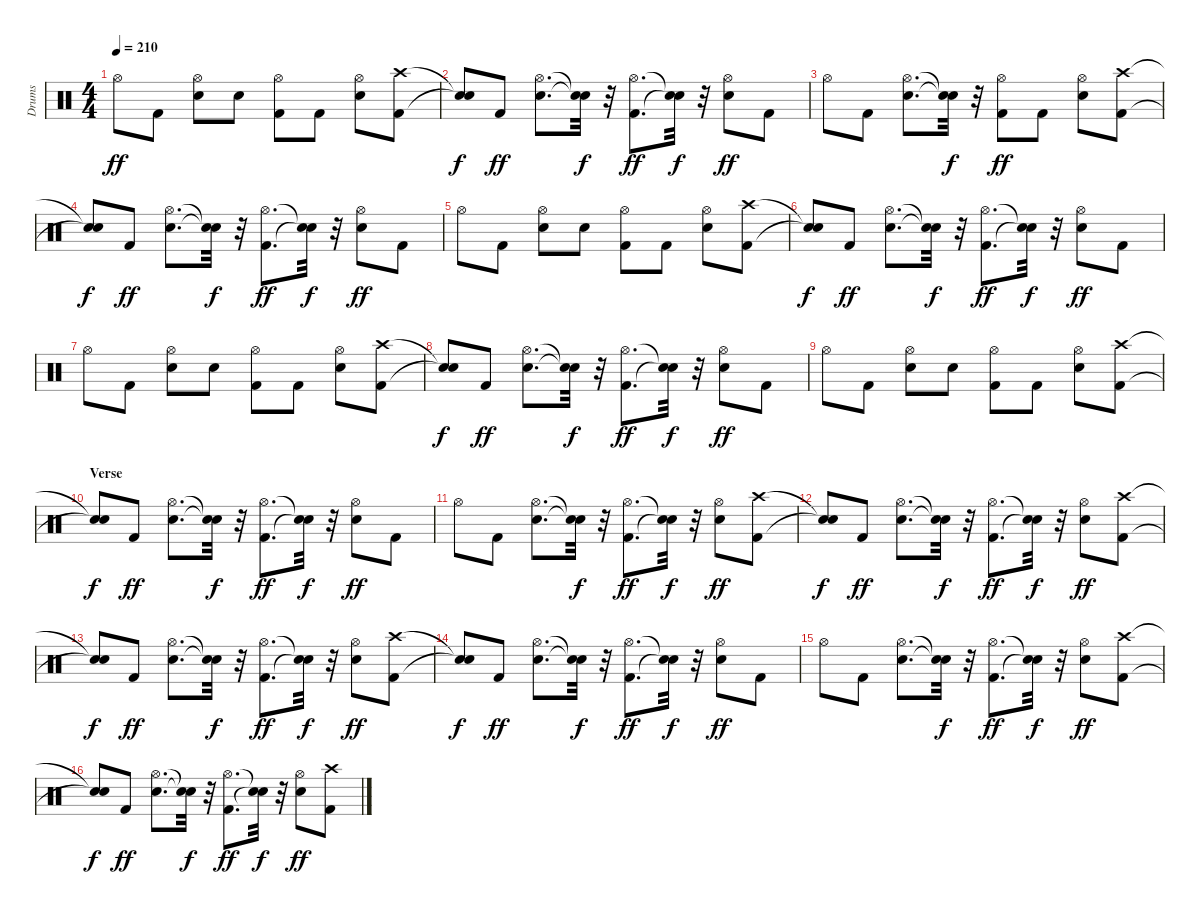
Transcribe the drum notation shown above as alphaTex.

\track ("Drums" "Drums") {instrument percussion}
\staff {score}
\articulation defaults
\ts (4 4)
\tempo 210
\clef neutral
\ks c "Hi-Hat (open)".8{dy ff} "Kick (hit) 2".8
("Snare (hit) 2" "Hi-Hat (open)").8 "Snare (hit) 2".8 ("Kick (hit) 2" "Hi-Hat (open)").8 "Kick (hit) 2".8 ("Snare (hit) 2" "Hi-Hat (open)").8 ("Kick (hit) 2" "Crash high (hit)").8 |
("Snare (hit)"{t} "Snare (hit)"{t}).8{dy f} "Kick (hit) 2".8{dy ff} ("Snare (hit) 2" "Hi-Hat (open)").8{d} ("Snare (hit)"{t} "Snare (hit)"{t}).32{dy f} r.32 ("Kick (hit) 2" "Hi-Hat (open)").8{d dy ff} ("Snare (hit)"{t} "Snare (hit)"{t}).32{dy f} r.32 ("Snare (hit) 2" "Hi-Hat (open)").8{dy ff} "Kick (hit) 2".8 |
"Hi-Hat (open)".8 "Kick (hit) 2".8 ("Snare (hit) 2" "Hi-Hat (open)").8{d} ("Snare (hit)"{t} "Snare (hit)"{t}).32{dy f} r.32 ("Kick (hit) 2" "Hi-Hat (open)").8{dy ff} "Kick (hit) 2".8 ("Snare (hit) 2" "Hi-Hat (open)").8 ("Kick (hit) 2" "Crash high (hit)").8 |
("Snare (hit)"{t} "Snare (hit)"{t}).8{dy f} "Kick (hit) 2".8{dy ff} ("Snare (hit) 2" "Hi-Hat (open)").8{d} ("Snare (hit)"{t} "Snare (hit)"{t}).32{dy f} r.32 ("Kick (hit) 2" "Hi-Hat (open)").8{d dy ff} ("Snare (hit)"{t} "Snare (hit)"{t}).32{dy f} r.32 ("Snare (hit) 2" "Hi-Hat (open)").8{dy ff} "Kick (hit) 2".8 |
"Hi-Hat (open)".8 "Kick (hit) 2".8 ("Snare (hit) 2" "Hi-Hat (open)").8 "Snare (hit) 2".8 ("Kick (hit) 2" "Hi-Hat (open)").8 "Kick (hit) 2".8 ("Snare (hit) 2" "Hi-Hat (open)").8 ("Kick (hit) 2" "Crash high (hit)").8 |
("Snare (hit)"{t} "Snare (hit)"{t}).8{dy f} "Kick (hit) 2".8{dy ff} ("Snare (hit) 2" "Hi-Hat (open)").8{d} ("Snare (hit)"{t} "Snare (hit)"{t}).32{dy f} r.32 ("Kick (hit) 2" "Hi-Hat (open)").8{d dy ff} ("Snare (hit)"{t} "Snare (hit)"{t}).32{dy f} r.32 ("Snare (hit) 2" "Hi-Hat (open)").8{dy ff} "Kick (hit) 2".8 |
"Hi-Hat (open)".8 "Kick (hit) 2".8 ("Snare (hit) 2" "Hi-Hat (open)").8 "Snare (hit) 2".8 ("Kick (hit) 2" "Hi-Hat (open)").8 "Kick (hit) 2".8 ("Snare (hit) 2" "Hi-Hat (open)").8 ("Kick (hit) 2" "Crash high (hit)").8 |
("Snare (hit)"{t} "Snare (hit)"{t}).8{dy f} "Kick (hit) 2".8{dy ff} ("Snare (hit) 2" "Hi-Hat (open)").8{d} ("Snare (hit)"{t} "Snare (hit)"{t}).32{dy f} r.32 ("Kick (hit) 2" "Hi-Hat (open)").8{d dy ff} ("Snare (hit)"{t} "Snare (hit)"{t}).32{dy f} r.32 ("Snare (hit) 2" "Hi-Hat (open)").8{dy ff} "Kick (hit) 2".8 |
"Hi-Hat (open)".8 "Kick (hit) 2".8 ("Snare (hit) 2" "Hi-Hat (open)").8 "Snare (hit) 2".8 ("Kick (hit) 2" "Hi-Hat (open)").8 "Kick (hit) 2".8 ("Snare (hit) 2" "Hi-Hat (open)").8 ("Kick (hit) 2" "Crash high (hit)").8 |
\section ("" "Verse")
("Snare (hit)"{t} "Snare (hit)"{t}).8{dy f} "Kick (hit) 2".8{dy ff} ("Snare (hit) 2" "Hi-Hat (open)").8{d} ("Snare (hit)"{t} "Snare (hit)"{t}).32{dy f} r.32 ("Kick (hit) 2" "Hi-Hat (open)").8{d dy ff} ("Snare (hit)"{t} "Snare (hit)"{t}).32{dy f} r.32 ("Snare (hit) 2" "Hi-Hat (open)").8{dy ff} "Kick (hit) 2".8 |
"Hi-Hat (open)".8 "Kick (hit) 2".8 ("Snare (hit) 2" "Hi-Hat (open)").8{d} ("Snare (hit)"{t} "Snare (hit)"{t}).32{dy f} r.32 ("Kick (hit) 2" "Hi-Hat (open)").8{d dy ff} ("Snare (hit)"{t} "Snare (hit)"{t}).32{dy f} r.32 ("Snare (hit) 2" "Hi-Hat (open)").8{dy ff} ("Kick (hit) 2" "Crash high (hit)").8 |
("Snare (hit)"{t} "Snare (hit)"{t}).8{dy f} "Kick (hit) 2".8{dy ff} ("Snare (hit) 2" "Hi-Hat (open)").8{d} ("Snare (hit)"{t} "Snare (hit)"{t}).32{dy f} r.32 ("Kick (hit) 2" "Hi-Hat (open)").8{d dy ff} ("Snare (hit)"{t} "Snare (hit)"{t}).32{dy f} r.32 ("Snare (hit) 2" "Hi-Hat (open)").8{dy ff} ("Kick (hit) 2" "Crash high (hit)").8 |
("Snare (hit)"{t} "Snare (hit)"{t}).8{dy f} "Kick (hit) 2".8{dy ff} ("Snare (hit) 2" "Hi-Hat (open)").8{d} ("Snare (hit)"{t} "Snare (hit)"{t}).32{dy f} r.32 ("Kick (hit) 2" "Hi-Hat (open)").8{d dy ff} ("Snare (hit)"{t} "Snare (hit)"{t}).32{dy f} r.32 ("Snare (hit) 2" "Hi-Hat (open)").8{dy ff} ("Kick (hit) 2" "Crash high (hit)").8 |
("Snare (hit)"{t} "Snare (hit)"{t}).8{dy f} "Kick (hit) 2".8{dy ff} ("Snare (hit) 2" "Hi-Hat (open)").8{d} ("Snare (hit)"{t} "Snare (hit)"{t}).32{dy f} r.32 ("Kick (hit) 2" "Hi-Hat (open)").8{d dy ff} ("Snare (hit)"{t} "Snare (hit)"{t}).32{dy f} r.32 ("Snare (hit) 2" "Hi-Hat (open)").8{dy ff} "Kick (hit) 2".8 |
"Hi-Hat (open)".8 "Kick (hit) 2".8 ("Snare (hit) 2" "Hi-Hat (open)").8{d} ("Snare (hit)"{t} "Snare (hit)"{t}).32{dy f} r.32 ("Kick (hit) 2" "Hi-Hat (open)").8{d dy ff} ("Snare (hit)"{t} "Snare (hit)"{t}).32{dy f} r.32 ("Snare (hit) 2" "Hi-Hat (open)").8{dy ff} ("Kick (hit) 2" "Crash high (hit)").8 |
("Snare (hit)"{t} "Snare (hit)"{t}).8{dy f} "Kick (hit) 2".8{dy ff} ("Snare (hit) 2" "Hi-Hat (open)").8{d} ("Snare (hit)"{t} "Snare (hit)"{t}).32{dy f} r.32 ("Kick (hit) 2" "Hi-Hat (open)").8{d dy ff} ("Snare (hit)"{t} "Snare (hit)"{t}).32{dy f} r.32 ("Snare (hit) 2" "Hi-Hat (open)").8{dy ff} ("Kick (hit) 2" "Crash high (hit)").8
